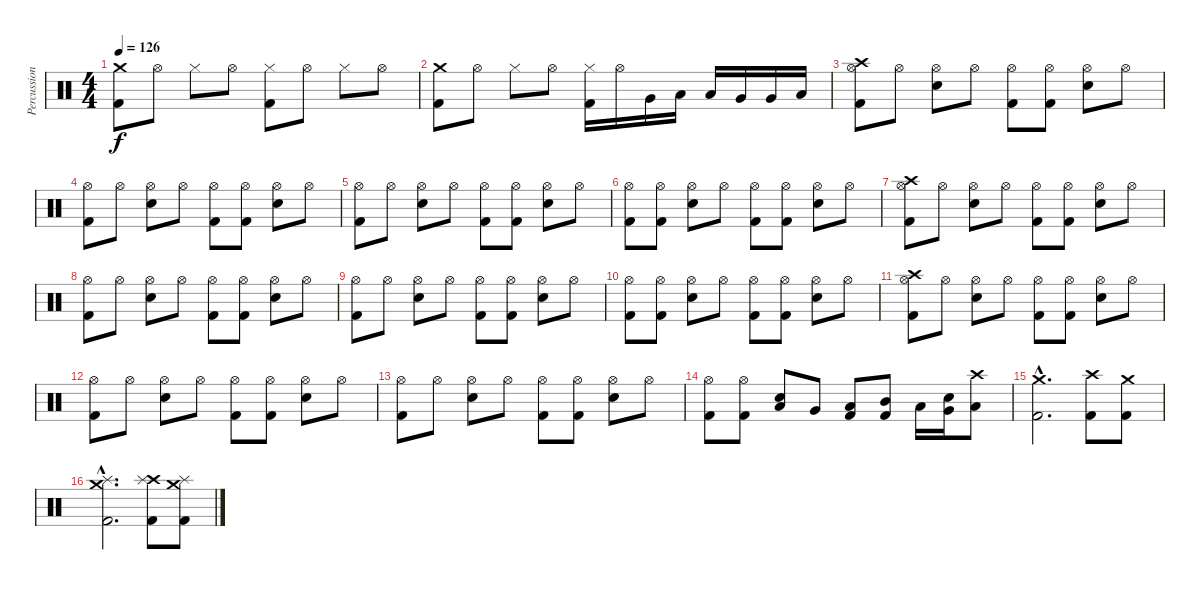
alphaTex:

\track ("Percussions" "Percussion") {instrument percussion}
\staff {score}
\articulation defaults
\ts (4 4)
\tempo 126
\clef neutral
\ks c
("Crash medium (hit)" "Kick (hit) 2").8{dy f} "Hi-Hat (open)".8 "Hi-Hat (closed)".8 "Hi-Hat (open)".8 ("Hi-Hat (closed)" "Kick (hit) 2").8 "Hi-Hat (open)".8 "Hi-Hat (closed)".8 "Hi-Hat (open)".8 |
("Crash medium (hit)" "Kick (hit) 2").8 "Hi-Hat (open)".8 "Hi-Hat (closed)".8 "Hi-Hat (open)".8 ("Hi-Hat (closed)" "Kick (hit) 2").16 "Hi-Hat (open)".16 "Very Low Tom (hit)".16 "Low Tom (hit)".16 "Low Tom (hit)".16 "Very Low Tom (hit)".16 "Very Low Tom (hit)".16 "Low Floor Tom (hit)".16 |
("Hi-Hat (open)" "Crash high (hit)" "Kick (hit) 2").8 "Hi-Hat (open)".8 ("Hi-Hat (open)" "Electric Snare (hit)").8 "Hi-Hat (open)".8 ("Hi-Hat (open)" "Kick (hit) 2").8 ("Hi-Hat (open)" "Kick (hit) 2").8 ("Hi-Hat (open)" "Electric Snare (hit)").8 "Hi-Hat (open)".8 |
("Hi-Hat (open)" "Kick (hit) 2").8 "Hi-Hat (open)".8 ("Hi-Hat (open)" "Electric Snare (hit)").8 "Hi-Hat (open)".8 ("Hi-Hat (open)" "Kick (hit) 2").8 ("Hi-Hat (open)" "Kick (hit) 2").8 ("Hi-Hat (open)" "Electric Snare (hit)").8 "Hi-Hat (open)".8 |
("Hi-Hat (open)" "Kick (hit) 2").8 "Hi-Hat (open)".8 ("Hi-Hat (open)" "Electric Snare (hit)").8 "Hi-Hat (open)".8 ("Hi-Hat (open)" "Kick (hit) 2").8 ("Hi-Hat (open)" "Kick (hit) 2").8 ("Hi-Hat (open)" "Electric Snare (hit)").8 "Hi-Hat (open)".8 |
("Hi-Hat (open)" "Kick (hit) 2").8 ("Hi-Hat (open)" "Kick (hit) 2").8 ("Hi-Hat (open)" "Electric Snare (hit)").8 "Hi-Hat (open)".8 ("Hi-Hat (open)" "Kick (hit) 2").8 ("Hi-Hat (open)" "Kick (hit) 2").8 ("Hi-Hat (open)" "Electric Snare (hit)").8 "Hi-Hat (open)".8 |
("Hi-Hat (open)" "Crash high (hit)" "Kick (hit) 2").8 "Hi-Hat (open)".8 ("Hi-Hat (open)" "Electric Snare (hit)").8 "Hi-Hat (open)".8 ("Hi-Hat (open)" "Kick (hit) 2").8 ("Hi-Hat (open)" "Kick (hit) 2").8 ("Hi-Hat (open)" "Electric Snare (hit)").8 "Hi-Hat (open)".8 |
("Hi-Hat (open)" "Kick (hit) 2").8 "Hi-Hat (open)".8 ("Hi-Hat (open)" "Electric Snare (hit)").8 "Hi-Hat (open)".8 ("Hi-Hat (open)" "Kick (hit) 2").8 ("Hi-Hat (open)" "Kick (hit) 2").8 ("Hi-Hat (open)" "Electric Snare (hit)").8 "Hi-Hat (open)".8 |
("Hi-Hat (open)" "Kick (hit) 2").8 "Hi-Hat (open)".8 ("Hi-Hat (open)" "Electric Snare (hit)").8 "Hi-Hat (open)".8 ("Hi-Hat (open)" "Kick (hit) 2").8 ("Hi-Hat (open)" "Kick (hit) 2").8 ("Hi-Hat (open)" "Electric Snare (hit)").8 "Hi-Hat (open)".8 |
("Hi-Hat (open)" "Kick (hit) 2").8 ("Hi-Hat (open)" "Kick (hit) 2").8 ("Hi-Hat (open)" "Electric Snare (hit)").8 "Hi-Hat (open)".8 ("Hi-Hat (open)" "Kick (hit) 2").8 ("Hi-Hat (open)" "Kick (hit) 2").8 ("Hi-Hat (open)" "Electric Snare (hit)").8 "Hi-Hat (open)".8 |
("Hi-Hat (open)" "Crash high (hit)" "Kick (hit) 2").8 "Hi-Hat (open)".8 ("Hi-Hat (open)" "Electric Snare (hit)").8 "Hi-Hat (open)".8 ("Hi-Hat (open)" "Kick (hit) 2").8 ("Hi-Hat (open)" "Kick (hit) 2").8 ("Hi-Hat (open)" "Electric Snare (hit)").8 "Hi-Hat (open)".8 |
("Hi-Hat (open)" "Kick (hit) 2").8 "Hi-Hat (open)".8 ("Hi-Hat (open)" "Electric Snare (hit)").8 "Hi-Hat (open)".8 ("Hi-Hat (open)" "Kick (hit) 2").8 ("Hi-Hat (open)" "Kick (hit) 2").8 ("Hi-Hat (open)" "Electric Snare (hit)").8 "Hi-Hat (open)".8 |
("Hi-Hat (open)" "Kick (hit) 2").8 "Hi-Hat (open)".8 ("Hi-Hat (open)" "Electric Snare (hit)").8 "Hi-Hat (open)".8 ("Hi-Hat (open)" "Kick (hit) 2").8 ("Hi-Hat (open)" "Kick (hit) 2").8 ("Hi-Hat (open)" "Electric Snare (hit)").8 "Hi-Hat (open)".8 |
("Hi-Hat (open)" "Kick (hit) 2").8 ("Hi-Hat (open)" "Kick (hit) 2").8 ("Low Floor Tom (hit)" "Electric Snare (hit)").8 "Very Low Tom (hit)".8 ("Low Tom (hit)" "Kick (hit) 2").8 ("Mid Tom (hit)" "Kick (hit) 2").8 "Low Tom (hit)".16 ("Very Low Tom (hit)" "Electric Snare (hit)").16 ("Crash high (hit)" "Low Floor Tom (hit)").8 |
("Crash medium (hit)"{hac} "Kick (hit) 2"{hac}).2{d} ("Crash high (hit)" "Kick (hit) 2").8 ("Crash medium (hit)" "Kick (hit) 2").8 |
("Crash medium (hit)"{hac} "Splash (hit)"{hac} "Kick (hit) 2"{hac}).2{d} ("Crash high (hit)" "Splash (hit)" "Kick (hit) 2").8 ("Crash medium (hit)" "Splash (hit)" "Kick (hit) 2").8
